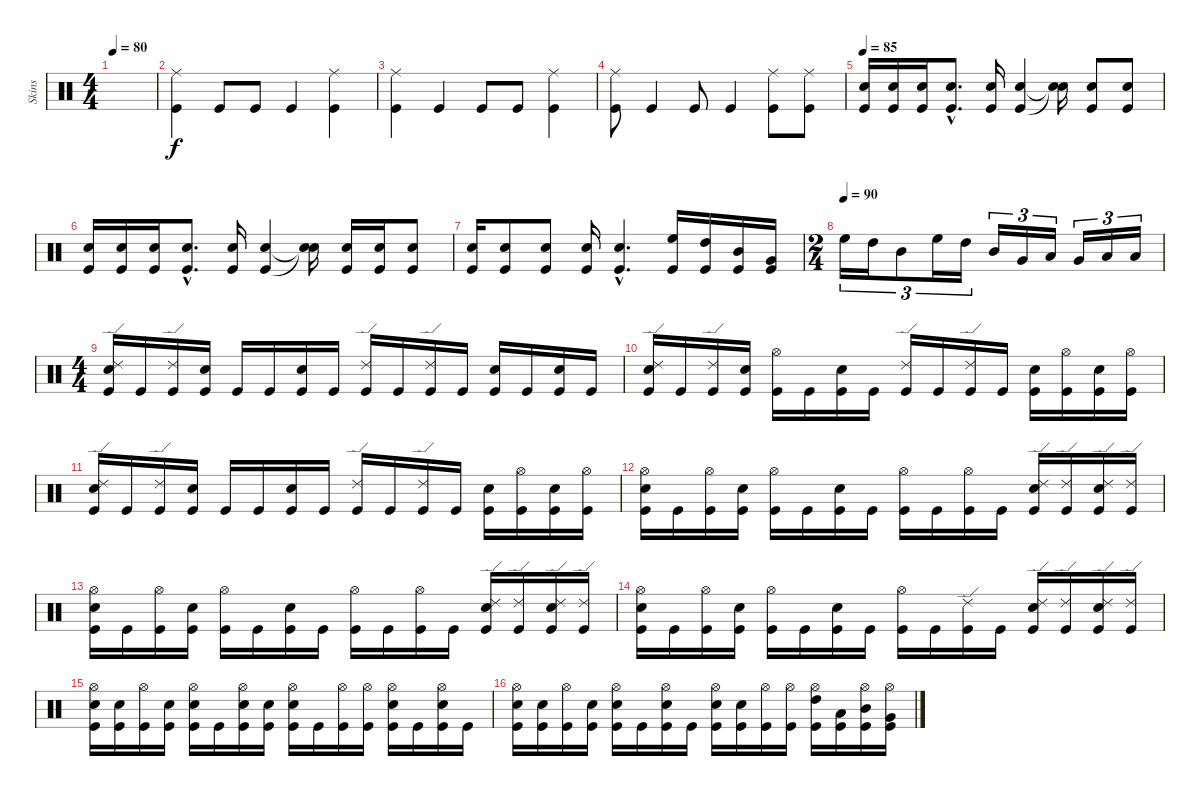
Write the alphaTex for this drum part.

\track ("Skins" "Skins") {instrument percussion}
\staff {score}
\articulation defaults
\ts (4 4)
\tempo 80
\clef neutral
\ks c
|
("Ride (middle)" "Kick (hit)").4 "Kick (hit)".8 "Kick (hit)".8 "Kick (hit)".4 ("Ride (middle)" "Kick (hit)").4 |
("Ride (middle)" "Kick (hit)").4 "Kick (hit)".4 "Kick (hit)".8 "Kick (hit)".8 ("Ride (middle)" "Kick (hit)").4 |
("Ride (middle)" "Kick (hit)").8 "Kick (hit)".4 "Kick (hit)".8 "Kick (hit)".4 ("Ride (middle)" "Kick (hit)").8 ("Ride (middle)" "Kick (hit)").8 |
\tempo 85
("Electric Snare (hit)" "Kick (hit)").16 ("Electric Snare (hit)" "Kick (hit)").16 ("Electric Snare (hit)" "Kick (hit)").16 ("Electric Snare (hit)"{hac} "Kick (hit)"{hac}).8{d} ("Electric Snare (hit)" "Kick (hit)").16 ("Electric Snare (hit)" "Kick (hit)").4 ("Snare (hit)"{t} "Snare (hit)"{t}).16 ("Electric Snare (hit)" "Kick (hit)").8 ("Electric Snare (hit)" "Kick (hit)").8 |
("Electric Snare (hit)" "Kick (hit)").16 ("Electric Snare (hit)" "Kick (hit)").16 ("Electric Snare (hit)" "Kick (hit)").16 ("Electric Snare (hit)"{hac} "Kick (hit)"{hac}).8{d} ("Electric Snare (hit)" "Kick (hit)").16 ("Electric Snare (hit)" "Kick (hit)").4 ("Snare (hit)"{t} "Snare (hit)"{t}).16 ("Electric Snare (hit)" "Kick (hit)").16 ("Electric Snare (hit)" "Kick (hit)").16 ("Electric Snare (hit)" "Kick (hit)").8 |
("Electric Snare (hit)" "Kick (hit)").16 ("Electric Snare (hit)" "Kick (hit)").8 ("Electric Snare (hit)" "Kick (hit)").8 ("Electric Snare (hit)" "Kick (hit)").16 ("Electric Snare (hit)"{hac} "Kick (hit)"{hac}).4{d} ("High Floor Tom (hit)" "Kick (hit)").16 ("High Tom (hit)" "Kick (hit)").16 ("Mid Tom (hit)" "Kick (hit)").16 ("Very Low Tom (hit)" "Kick (hit)").16 |
\ts (2 4)
\tempo (90)
"High Floor Tom (hit)".16{tu (3 2)} "High Tom (hit)".16{tu (3 2)} "Mid Tom (hit)".8{tu (3 2)} "High Floor Tom (hit)".16{tu (3 2)} "High Tom (hit)".16{tu (3 2)} "Mid Tom (hit)".16{tu (3 2)} "Very Low Tom (hit)".16{tu (3 2)} "Low Tom (hit)".16{tu (3 2)} "Very Low Tom (hit)".16{tu (3 2)} "Low Floor Tom (hit)".16{tu (3 2)} "Low Floor Tom (hit)".16{tu (3 2)} |
\ts (4 4)
("Ride (edge) 2" "Electric Snare (hit)" "Kick (hit)").16 "Kick (hit)".16 ("Ride (edge) 2" "Kick (hit)").16 ("Electric Snare (hit)" "Kick (hit)").16 "Kick (hit)".16 "Kick (hit)".16 ("Electric Snare (hit)" "Kick (hit)").16 "Kick (hit)".16 ("Ride (edge) 2" "Kick (hit)").16 "Kick (hit)".16 ("Ride (edge) 2" "Kick (hit)").16 "Kick (hit)".16 ("Electric Snare (hit)" "Kick (hit)").16 "Kick (hit)".16 ("Electric Snare (hit)" "Kick (hit)").16 "Kick (hit)".16 |
("Ride (edge) 2" "Electric Snare (hit)" "Kick (hit)").16 "Kick (hit)".16 ("Ride (edge) 2" "Kick (hit)").16 ("Electric Snare (hit)" "Kick (hit)").16 ("Hi-Hat (open)" "Kick (hit)").16 "Kick (hit)".16 ("Electric Snare (hit)" "Kick (hit)").16 "Kick (hit)".16 ("Ride (edge) 2" "Kick (hit)").16 "Kick (hit)".16 ("Ride (edge) 2" "Kick (hit)").16 "Kick (hit)".16 ("Electric Snare (hit)" "Kick (hit)").16 ("Hi-Hat (open)" "Kick (hit)").16 ("Electric Snare (hit)" "Kick (hit)").16 ("Hi-Hat (open)" "Kick (hit)").16 |
("Ride (edge) 2" "Electric Snare (hit)" "Kick (hit)").16 "Kick (hit)".16 ("Ride (edge) 2" "Kick (hit)").16 ("Electric Snare (hit)" "Kick (hit)").16 "Kick (hit)".16 "Kick (hit)".16 ("Electric Snare (hit)" "Kick (hit)").16 "Kick (hit)".16 ("Ride (edge) 2" "Kick (hit)").16 "Kick (hit)".16 ("Ride (edge) 2" "Kick (hit)").16 "Kick (hit)".16 ("Electric Snare (hit)" "Kick (hit)").16 ("Hi-Hat (open)" "Kick (hit)").16 ("Electric Snare (hit)" "Kick (hit)").16 ("Hi-Hat (open)" "Kick (hit)").16 |
("Hi-Hat (open)" "Electric Snare (hit)" "Kick (hit)").16 "Kick (hit)".16 ("Hi-Hat (open)" "Kick (hit)").16 ("Electric Snare (hit)" "Kick (hit)").16 ("Hi-Hat (open)" "Kick (hit)").16 "Kick (hit)".16 ("Electric Snare (hit)" "Kick (hit)").16 "Kick (hit)".16 ("Hi-Hat (open)" "Kick (hit)").16 "Kick (hit)".16 ("Hi-Hat (open)" "Kick (hit)").16 "Kick (hit)".16 ("Ride (edge) 2" "Electric Snare (hit)" "Kick (hit)").16 ("Ride (edge) 2" "Kick (hit)").16 ("Ride (edge) 2" "Electric Snare (hit)" "Kick (hit)").16 ("Ride (edge) 2" "Kick (hit)").16 |
("Hi-Hat (open)" "Electric Snare (hit)" "Kick (hit)").16 "Kick (hit)".16 ("Hi-Hat (open)" "Kick (hit)").16 ("Electric Snare (hit)" "Kick (hit)").16 ("Hi-Hat (open)" "Kick (hit)").16 "Kick (hit)".16 ("Electric Snare (hit)" "Kick (hit)").16 "Kick (hit)".16 ("Hi-Hat (open)" "Kick (hit)").16 "Kick (hit)".16 ("Hi-Hat (open)" "Kick (hit)").16 "Kick (hit)".16 ("Ride (edge) 2" "Electric Snare (hit)" "Kick (hit)").16 ("Ride (edge) 2" "Kick (hit)").16 ("Ride (edge) 2" "Electric Snare (hit)" "Kick (hit)").16 ("Ride (edge) 2" "Kick (hit)").16 |
("Hi-Hat (open)" "Electric Snare (hit)" "Kick (hit)").16 "Kick (hit)".16 ("Hi-Hat (open)" "Kick (hit)").16 ("Electric Snare (hit)" "Kick (hit)").16 ("Hi-Hat (open)" "Kick (hit)").16 "Kick (hit)".16 ("Electric Snare (hit)" "Kick (hit)").16 "Kick (hit)".16 ("Hi-Hat (open)" "Kick (hit)").16 "Kick (hit)".16 ("Ride (edge) 2" "Kick (hit)").16 "Kick (hit)".16 ("Ride (edge) 2" "Electric Snare (hit)" "Kick (hit)").16 ("Ride (edge) 2" "Kick (hit)").16 ("Ride (edge) 2" "Electric Snare (hit)" "Kick (hit)").16 ("Ride (edge) 2" "Kick (hit)").16 |
("Hi-Hat (open)" "Snare (hit) 2" "Kick (hit)").16 ("Snare (hit) 2" "Kick (hit)").16 ("Hi-Hat (open)" "Kick (hit)").16 ("Snare (hit) 2" "Kick (hit)").16 ("Hi-Hat (open)" "Snare (hit) 2" "Kick (hit)").16 "Kick (hit)".16 ("Hi-Hat (open)" "Snare (hit) 2" "Kick (hit)").16 ("Snare (hit) 2" "Kick (hit)").16 ("Hi-Hat (open)" "Snare (hit) 2" "Kick (hit)").16 "Kick (hit)".16 ("Hi-Hat (open)" "Kick (hit)").16 ("Hi-Hat (open)" "Kick (hit)").16 ("Hi-Hat (open)" "Snare (hit) 2" "Kick (hit)").16 "Kick (hit)".16 ("Hi-Hat (open)" "Snare (hit) 2" "Kick (hit)").16 "Kick (hit)".16 |
("Hi-Hat (open)" "Snare (hit) 2" "Kick (hit)").16 ("Snare (hit) 2" "Kick (hit)").16 ("Hi-Hat (open)" "Kick (hit)").16 ("Snare (hit) 2" "Kick (hit)").16 ("Hi-Hat (open)" "Snare (hit) 2" "Kick (hit)").16 "Kick (hit)".16 ("Hi-Hat (open)" "Snare (hit) 2" "Kick (hit)").16 "Kick (hit)".16 ("Hi-Hat (open)" "Snare (hit) 2" "Kick (hit)").16 ("Snare (hit) 2" "Kick (hit)").16 ("Hi-Hat (open)" "Kick (hit)").16 ("Hi-Hat (open)" "Kick (hit)").16 ("Hi-Hat (open)" "High Tom (hit)" "Kick (hit)").16 ("Low Tom (hit)" "Kick (hit)").16 ("Hi-Hat (open)" "Mid Tom (hit)" "Kick (hit)").16 ("Hi-Hat (open)" "Very Low Tom (hit)" "Kick (hit)").16
